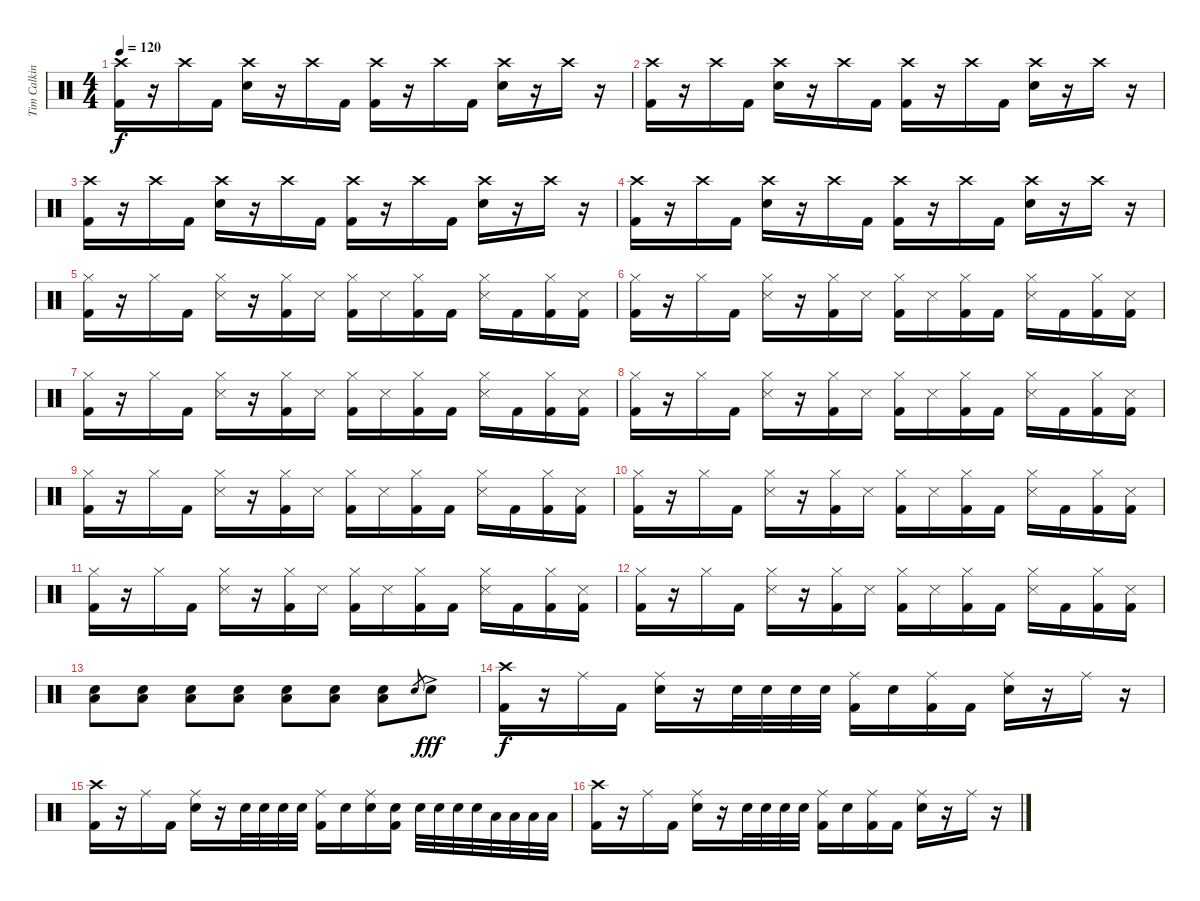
\track ("Tim Calkin" "Tim Calkin") {instrument percussion}
\staff {score}
\articulation defaults
\ts (4 4)
\tempo 120
\clef neutral
\ks c
("Crash high (hit)" "Kick (hit) 2").16{dy f} r.16 "Crash high (hit)".16 "Kick (hit) 2".16 ("Crash high (hit)" "Snare (hit) 2").16 r.16 "Crash high (hit)".16 "Kick (hit) 2".16 ("Crash high (hit)" "Kick (hit) 2").16 r.16 "Crash high (hit)".16 "Kick (hit) 2".16 ("Crash high (hit)" "Snare (hit) 2").16 r.16 "Crash high (hit)".16 r.16 |
("Crash high (hit)" "Kick (hit) 2").16 r.16 "Crash high (hit)".16 "Kick (hit) 2".16 ("Crash high (hit)" "Snare (hit) 2").16 r.16 "Crash high (hit)".16 "Kick (hit) 2".16 ("Crash high (hit)" "Kick (hit) 2").16 r.16 "Crash high (hit)".16 "Kick (hit) 2".16 ("Crash high (hit)" "Snare (hit) 2").16 r.16 "Crash high (hit)".16 r.16 |
("Crash high (hit)" "Kick (hit) 2").16 r.16 "Crash high (hit)".16 "Kick (hit) 2".16 ("Crash high (hit)" "Snare (hit) 2").16 r.16 "Crash high (hit)".16 "Kick (hit) 2".16 ("Crash high (hit)" "Kick (hit) 2").16 r.16 "Crash high (hit)".16 "Kick (hit) 2".16 ("Crash high (hit)" "Snare (hit) 2").16 r.16 "Crash high (hit)".16 r.16 |
("Crash high (hit)" "Kick (hit) 2").16 r.16 "Crash high (hit)".16 "Kick (hit) 2".16 ("Crash high (hit)" "Snare (hit) 2").16 r.16 "Crash high (hit)".16 "Kick (hit) 2".16 ("Crash high (hit)" "Kick (hit) 2").16 r.16 "Crash high (hit)".16 "Kick (hit) 2".16 ("Crash high (hit)" "Snare (hit) 2").16 r.16 "Crash high (hit)".16 r.16 |
("Hi-Hat (closed)" "Kick (hit) 2").16 r.16 "Hi-Hat (closed)".16 "Kick (hit) 2".16 ("Hi-Hat (closed)" "Snare (side stick) 3").16 r.16 ("Hi-Hat (closed)" "Kick (hit) 2").16 "Snare (side stick) 3".16 ("Hi-Hat (closed)" "Kick (hit) 2").16 "Snare (side stick) 3".16 ("Hi-Hat (closed)" "Kick (hit) 2").16 "Kick (hit) 2".16 ("Hi-Hat (closed)" "Snare (side stick) 3").16 "Kick (hit) 2".16 ("Hi-Hat (closed)" "Kick (hit) 2").16 ("Snare (side stick) 3" "Kick (hit) 2").16 |
("Hi-Hat (closed)" "Kick (hit) 2").16 r.16 "Hi-Hat (closed)".16 "Kick (hit) 2".16 ("Hi-Hat (closed)" "Snare (side stick) 3").16 r.16 ("Hi-Hat (closed)" "Kick (hit) 2").16 "Snare (side stick) 3".16 ("Hi-Hat (closed)" "Kick (hit) 2").16 "Snare (side stick) 3".16 ("Hi-Hat (closed)" "Kick (hit) 2").16 "Kick (hit) 2".16 ("Hi-Hat (closed)" "Snare (side stick) 3").16 "Kick (hit) 2".16 ("Hi-Hat (closed)" "Kick (hit) 2").16 ("Snare (side stick) 3" "Kick (hit) 2").16 |
("Hi-Hat (closed)" "Kick (hit) 2").16 r.16 "Hi-Hat (closed)".16 "Kick (hit) 2".16 ("Hi-Hat (closed)" "Snare (side stick) 3").16 r.16 ("Hi-Hat (closed)" "Kick (hit) 2").16 "Snare (side stick) 3".16 ("Hi-Hat (closed)" "Kick (hit) 2").16 "Snare (side stick) 3".16 ("Hi-Hat (closed)" "Kick (hit) 2").16 "Kick (hit) 2".16 ("Hi-Hat (closed)" "Snare (side stick) 3").16 "Kick (hit) 2".16 ("Hi-Hat (closed)" "Kick (hit) 2").16 ("Snare (side stick) 3" "Kick (hit) 2").16 |
("Hi-Hat (closed)" "Kick (hit) 2").16 r.16 "Hi-Hat (closed)".16 "Kick (hit) 2".16 ("Hi-Hat (closed)" "Snare (side stick) 3").16 r.16 ("Hi-Hat (closed)" "Kick (hit) 2").16 "Snare (side stick) 3".16 ("Hi-Hat (closed)" "Kick (hit) 2").16 "Snare (side stick) 3".16 ("Hi-Hat (closed)" "Kick (hit) 2").16 "Kick (hit) 2".16 ("Hi-Hat (closed)" "Snare (side stick) 3").16 "Kick (hit) 2".16 ("Hi-Hat (closed)" "Kick (hit) 2").16 ("Snare (side stick) 3" "Kick (hit) 2").16 |
("Hi-Hat (closed)" "Kick (hit) 2").16 r.16 "Hi-Hat (closed)".16 "Kick (hit) 2".16 ("Hi-Hat (closed)" "Snare (side stick) 3").16 r.16 ("Hi-Hat (closed)" "Kick (hit) 2").16 "Snare (side stick) 3".16 ("Hi-Hat (closed)" "Kick (hit) 2").16 "Snare (side stick) 3".16 ("Hi-Hat (closed)" "Kick (hit) 2").16 "Kick (hit) 2".16 ("Hi-Hat (closed)" "Snare (side stick) 3").16 "Kick (hit) 2".16 ("Hi-Hat (closed)" "Kick (hit) 2").16 ("Snare (side stick) 3" "Kick (hit) 2").16 |
("Hi-Hat (closed)" "Kick (hit) 2").16 r.16 "Hi-Hat (closed)".16 "Kick (hit) 2".16 ("Hi-Hat (closed)" "Snare (side stick) 3").16 r.16 ("Hi-Hat (closed)" "Kick (hit) 2").16 "Snare (side stick) 3".16 ("Hi-Hat (closed)" "Kick (hit) 2").16 "Snare (side stick) 3".16 ("Hi-Hat (closed)" "Kick (hit) 2").16 "Kick (hit) 2".16 ("Hi-Hat (closed)" "Snare (side stick) 3").16 "Kick (hit) 2".16 ("Hi-Hat (closed)" "Kick (hit) 2").16 ("Snare (side stick) 3" "Kick (hit) 2").16 |
("Hi-Hat (closed)" "Kick (hit) 2").16 r.16 "Hi-Hat (closed)".16 "Kick (hit) 2".16 ("Hi-Hat (closed)" "Snare (side stick) 3").16 r.16 ("Hi-Hat (closed)" "Kick (hit) 2").16 "Snare (side stick) 3".16 ("Hi-Hat (closed)" "Kick (hit) 2").16 "Snare (side stick) 3".16 ("Hi-Hat (closed)" "Kick (hit) 2").16 "Kick (hit) 2".16 ("Hi-Hat (closed)" "Snare (side stick) 3").16 "Kick (hit) 2".16 ("Hi-Hat (closed)" "Kick (hit) 2").16 ("Snare (side stick) 3" "Kick (hit) 2").16 |
("Hi-Hat (closed)" "Kick (hit) 2").16 r.16 "Hi-Hat (closed)".16 "Kick (hit) 2".16 ("Hi-Hat (closed)" "Snare (side stick) 3").16 r.16 ("Hi-Hat (closed)" "Kick (hit) 2").16 "Snare (side stick) 3".16 ("Hi-Hat (closed)" "Kick (hit) 2").16 "Snare (side stick) 3".16 ("Hi-Hat (closed)" "Kick (hit) 2").16 "Kick (hit) 2".16 ("Hi-Hat (closed)" "Snare (side stick) 3").16 "Kick (hit) 2".16 ("Hi-Hat (closed)" "Kick (hit) 2").16 ("Snare (side stick) 3" "Kick (hit) 2").16 |
("Low Floor Tom (hit)" "Snare (hit) 2").8 ("Low Floor Tom (hit)" "Snare (hit) 2").8 ("Low Floor Tom (hit)" "Snare (hit) 2").8 ("Low Floor Tom (hit)" "Snare (hit) 2").8 ("Low Floor Tom (hit)" "Snare (hit) 2").8 ("Low Floor Tom (hit)" "Snare (hit) 2").8 ("Low Floor Tom (hit)" "Snare (hit) 2").8 "Snare (hit) 2".8{gr} "Snare (hit) 2"{ac}.8{dy fff} |
("Crash high (hit)" "Kick (hit) 2").16{dy f} r.16 "Ride (middle)".16 "Kick (hit) 2".16 ("Ride (middle)" "Snare (hit) 2").16 r.16 "Snare (hit) 2".32 "Snare (hit) 2".32 "Snare (hit) 2".32 "Snare (hit) 2".32 ("Ride (middle)" "Kick (hit) 2").16 "Snare (hit) 2".16 ("Ride (middle)" "Kick (hit) 2").16 "Kick (hit) 2".16 ("Ride (middle)" "Snare (hit) 2").16 r.16 "Ride (middle)".16 r.16 |
("Crash high (hit)" "Kick (hit) 2").16 r.16 "Ride (middle)".16 "Kick (hit) 2".16 ("Ride (middle)" "Snare (hit) 2").16 r.16 "Snare (hit) 2".32 "Snare (hit) 2".32 "Snare (hit) 2".32 "Snare (hit) 2".32 ("Ride (middle)" "Kick (hit) 2").16 "Snare (hit) 2".16 ("Ride (middle)" "Snare (hit) 2").16 ("Snare (hit) 2" "Kick (hit) 2").16 "Snare (hit) 2".32 "Snare (hit) 2".32 "Snare (hit) 2".32 "Snare (hit) 2".32 "Low Tom (hit)".32 "Low Tom (hit)".32 "Low Floor Tom (hit)".32 "Low Floor Tom (hit)".32 |
("Crash high (hit)" "Kick (hit) 2").16 r.16 "Ride (middle)".16 "Kick (hit) 2".16 ("Ride (middle)" "Snare (hit) 2").16 r.16 "Snare (hit) 2".32 "Snare (hit) 2".32 "Snare (hit) 2".32 "Snare (hit) 2".32 ("Ride (middle)" "Kick (hit) 2").16 "Snare (hit) 2".16 ("Ride (middle)" "Kick (hit) 2").16 "Kick (hit) 2".16 ("Ride (middle)" "Snare (hit) 2").16 r.16 "Ride (middle)".16 r.16
